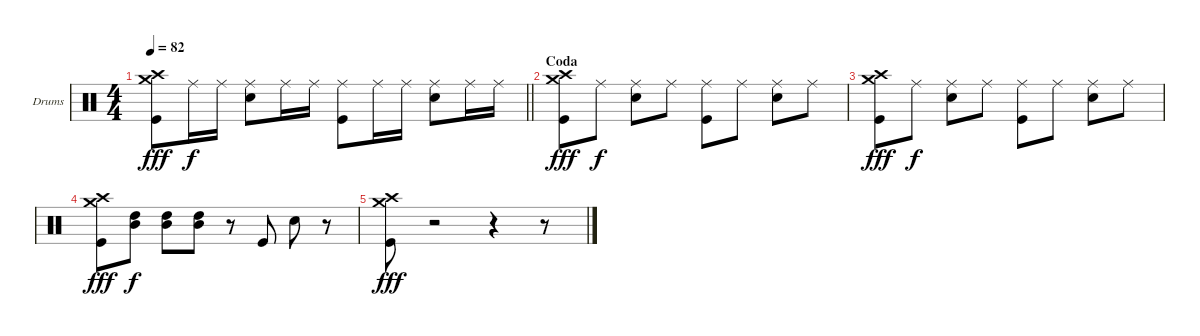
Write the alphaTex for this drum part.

\bracketExtendMode groupsimilarinstruments
\firstSystemTrackNameOrientation horizontal
\otherSystemsTrackNameOrientation horizontal
\track ("Drumkit" "Drums") {instrument percussion}
\staff {score}
\articulation defaults
\ts (4 4)
\tempo 82
\clef neutral
\barLineRight lightlight
\ks c
("Kick (hit)" "Crash medium (hit)" "Crash high (hit)").8{dy fff} "Ride (middle)".16{dy f} "Ride (middle)".16 ("Snare (hit) 2" "Ride (middle)").8 "Ride (middle)".16 "Ride (middle)".16 ("Kick (hit)" "Ride (middle)").8 "Ride (middle)".16 "Ride (middle)".16 ("Snare (hit) 2" "Ride (middle)").8 "Ride (middle)".16 "Ride (middle)".16 |
\section ("" "Coda")
("Kick (hit)" "Crash medium (hit)" "Crash high (hit)").8{dy fff} "Ride (middle)".8{dy f} ("Snare (hit) 2" "Ride (middle)").8 "Ride (middle)".8 ("Kick (hit)" "Ride (middle)").8 "Ride (middle)".8 ("Snare (hit) 2" "Ride (middle)").8 "Ride (middle)".8 |
("Kick (hit)" "Crash medium (hit)" "Crash high (hit)").8{dy fff} "Ride (middle)".8{dy f} ("Snare (hit) 2" "Ride (middle)").8 "Ride (middle)".8 ("Kick (hit)" "Ride (middle)").8 "Ride (middle)".8 ("Snare (hit) 2" "Ride (middle)").8 "Ride (middle)".8 |
("Kick (hit)" "Crash medium (hit)" "Crash high (hit)").8{dy fff} ("Mid Tom (hit)" "High Tom (hit)").8{dy f} ("High Tom (hit)" "Mid Tom (hit)").8 ("Mid Tom (hit)" "High Tom (hit)").8 r.8 "Kick (hit)".8 "Snare (hit) 2".8 r.8 |
("Kick (hit)" "Crash high (hit)" "Crash medium (hit)").8{dy fff} r.2 r.4 r.8
